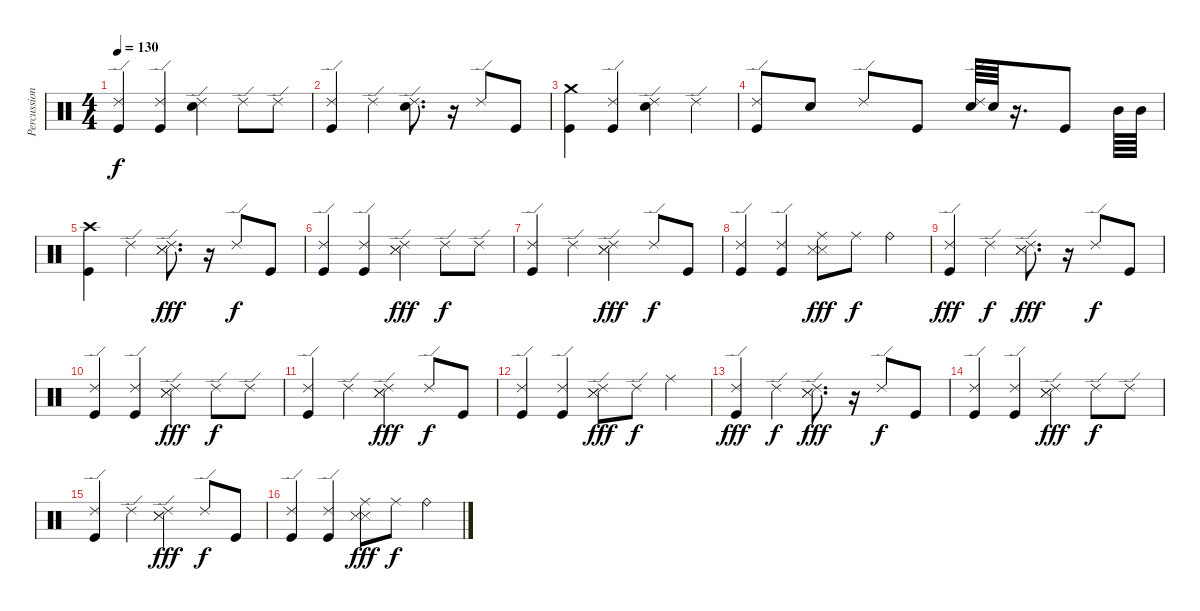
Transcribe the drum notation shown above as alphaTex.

\track ("Percussion" "Percussion") {instrument percussion}
\staff {score}
\articulation defaults
\ts (4 4)
\tempo 130
\clef neutral
\ks c
("Ride (edge) 2" "Kick (hit)").4{dy f} ("Ride (edge) 2" "Kick (hit)").4 ("Ride (edge) 2" "Electric Snare (hit)").4 "Ride (edge) 2".8 "Ride (edge) 2".8 |
("Ride (edge) 2" "Kick (hit)").4 "Ride (edge) 2".4 ("Ride (edge) 2" "Electric Snare (hit)").8{d} r.16 "Ride (edge) 2".8 "Kick (hit)".8 |
("Crash medium (hit)" "Kick (hit)").4 ("Ride (edge) 2" "Kick (hit)").4 ("Ride (edge) 2" "Electric Snare (hit)").4 "Ride (edge) 2".4 |
("Ride (edge) 2" "Kick (hit)").8 "Electric Snare (hit)".8 "Ride (edge) 2".8 "Kick (hit)".8 ("Ride (edge) 2" "Electric Snare (hit)").64 "Electric Snare (hit)".64 r.16{d} "Kick (hit)".8 "Mid Tom (hit)".64 "Mid Tom (hit)".64 |
("Crash high (hit)" "Kick (hit)").4 "Ride (edge) 2".4 ("Ride (edge) 2" "Snare (side stick) 3" "Snare (side stick) 3").8{d dy fff} r.16 "Ride (edge) 2".8{dy f} "Kick (hit)".8 |
("Ride (edge) 2" "Kick (hit)").4 ("Ride (edge) 2" "Kick (hit)").4 ("Ride (edge) 2" "Snare (side stick) 3" "Snare (side stick) 3").4{dy fff} "Ride (edge) 2".8{dy f} "Ride (edge) 2".8 |
("Ride (edge) 2" "Kick (hit)").4 "Ride (edge) 2".4 ("Ride (edge) 2" "Snare (side stick) 3" "Snare (side stick) 3").4{dy fff} "Ride (edge) 2".8{dy f} "Kick (hit)".8 |
("Ride (edge) 2" "Kick (hit)").4 ("Ride (edge) 2" "Kick (hit)").4 ("Ride (middle)" "Snare (side stick) 3" "Snare (side stick) 3").8{dy fff} "Ride (middle)".8{dy f} "Ride (bell)".4 |
("Ride (edge) 2" "Kick (hit)").4{dy fff} "Ride (edge) 2".4{dy f} ("Ride (edge) 2" "Snare (side stick) 3" "Snare (side stick) 3").8{d dy fff} r.16 "Ride (edge) 2".8{dy f} "Kick (hit)".8 |
("Ride (edge) 2" "Kick (hit)").4 ("Ride (edge) 2" "Kick (hit)").4 ("Ride (edge) 2" "Snare (side stick) 3" "Snare (side stick) 3").4{dy fff} "Ride (edge) 2".8{dy f} "Ride (edge) 2".8 |
("Ride (edge) 2" "Kick (hit)").4 "Ride (edge) 2".4 ("Ride (edge) 2" "Snare (side stick) 3" "Snare (side stick) 3").4{dy fff} "Ride (edge) 2".8{dy f} "Kick (hit)".8 |
("Ride (edge) 2" "Kick (hit)").4 ("Ride (edge) 2" "Kick (hit)").4 ("Ride (edge) 2" "Snare (side stick) 3" "Snare (side stick) 3").8{dy fff} "Ride (edge) 2".8{dy f} "Ride (middle)".4 |
("Ride (edge) 2" "Kick (hit)").4{dy fff} "Ride (edge) 2".4{dy f} ("Ride (edge) 2" "Snare (side stick) 3" "Snare (side stick) 3").8{d dy fff} r.16 "Ride (edge) 2".8{dy f} "Kick (hit)".8 |
("Ride (edge) 2" "Kick (hit)").4 ("Ride (edge) 2" "Kick (hit)").4 ("Ride (edge) 2" "Snare (side stick) 3" "Snare (side stick) 3").4{dy fff} "Ride (edge) 2".8{dy f} "Ride (edge) 2".8 |
("Ride (edge) 2" "Kick (hit)").4 "Ride (edge) 2".4 ("Ride (edge) 2" "Snare (side stick) 3" "Snare (side stick) 3").4{dy fff} "Ride (edge) 2".8{dy f} "Kick (hit)".8 |
("Ride (edge) 2" "Kick (hit)").4 ("Ride (edge) 2" "Kick (hit)").4 ("Ride (middle)" "Snare (side stick) 3" "Snare (side stick) 3").8{dy fff} "Ride (middle)".8{dy f} "Ride (bell)".4
